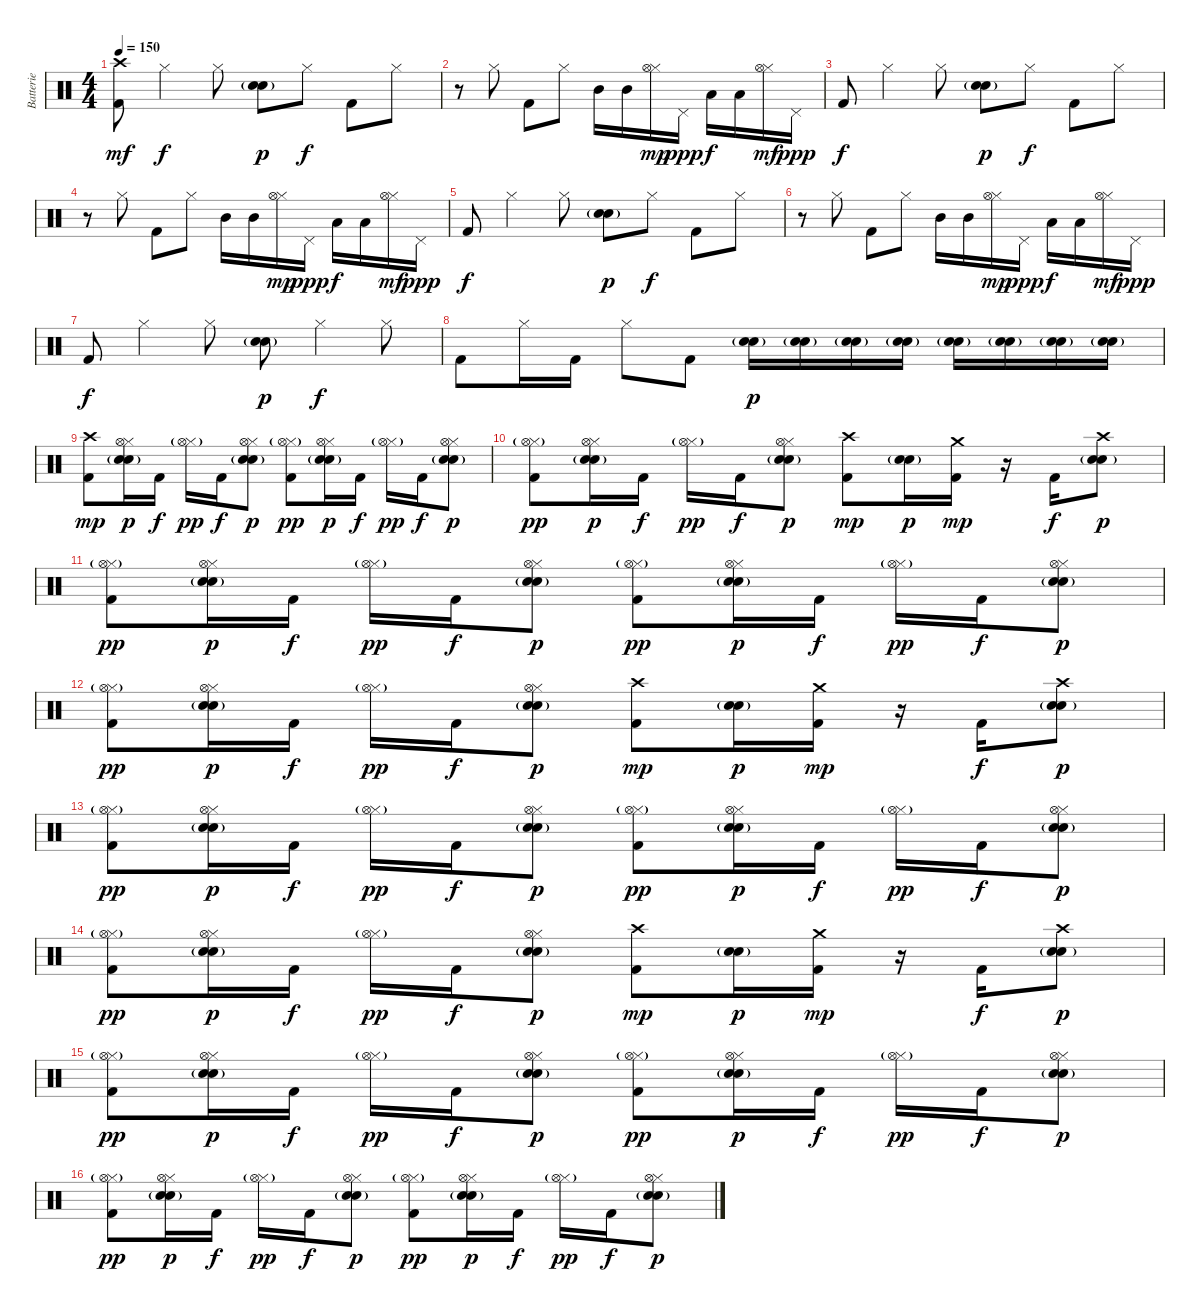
\track ("Batterie" "Batterie") {instrument percussion}
\staff {score}
\articulation defaults
\ts (4 4)
\tempo 150
\clef neutral
\ks c
("Crash high (hit)" "Kick (hit) 2").8{dy mf} "Hi-Hat (closed)".4{dy f} "Hi-Hat (closed)".8 ("Electric Snare (hit)" "Snare (hit) 2"{g}).8{dy p} "Hi-Hat (closed)".8{dy f} "Kick (hit) 2".8 "Hi-Hat (closed)".8 |
r.8 "Hi-Hat (closed)".8 "Kick (hit) 2".8 "Hi-Hat (closed)".8 "Mid Tom (hit)".16 "Mid Tom (hit)".16 ("Hi-Hat (closed)" "Hi-Hat (open)").16{dy mp} "Pedal Hi-Hat (hit)".16{dy ppp} "Low Tom (hit)".16{dy f} "Low Tom (hit)".16 ("Hi-Hat (closed)" "Hi-Hat (open)").16{dy mf} "Pedal Hi-Hat (hit)".16{dy ppp} |
"Kick (hit) 2".8{dy f} "Hi-Hat (closed)".4 "Hi-Hat (closed)".8 ("Electric Snare (hit)" "Snare (hit) 2"{g}).8{dy p} "Hi-Hat (closed)".8{dy f} "Kick (hit) 2".8 "Hi-Hat (closed)".8 |
r.8 "Hi-Hat (closed)".8 "Kick (hit) 2".8 "Hi-Hat (closed)".8 "Mid Tom (hit)".16 "Mid Tom (hit)".16 ("Hi-Hat (closed)" "Hi-Hat (open)").16{dy mp} "Pedal Hi-Hat (hit)".16{dy ppp} "Low Tom (hit)".16{dy f} "Low Tom (hit)".16 ("Hi-Hat (closed)" "Hi-Hat (open)").16{dy mf} "Pedal Hi-Hat (hit)".16{dy ppp} |
"Kick (hit) 2".8{dy f} "Hi-Hat (closed)".4 "Hi-Hat (closed)".8 ("Electric Snare (hit)" "Snare (hit) 2"{g}).8{dy p} "Hi-Hat (closed)".8{dy f} "Kick (hit) 2".8 "Hi-Hat (closed)".8 |
r.8 "Hi-Hat (closed)".8 "Kick (hit) 2".8 "Hi-Hat (closed)".8 "Mid Tom (hit)".16 "Mid Tom (hit)".16 ("Hi-Hat (closed)" "Hi-Hat (open)").16{dy mp} "Pedal Hi-Hat (hit)".16{dy ppp} "Low Tom (hit)".16{dy f} "Low Tom (hit)".16 ("Hi-Hat (closed)" "Hi-Hat (open)").16{dy mf} "Pedal Hi-Hat (hit)".16{dy ppp} |
"Kick (hit) 2".8{dy f} "Hi-Hat (closed)".4 "Hi-Hat (closed)".8 ("Electric Snare (hit)" "Snare (hit) 2"{g}).8{dy p} "Hi-Hat (closed)".4{dy f} "Hi-Hat (closed)".8 |
"Kick (hit) 2".8 "Hi-Hat (closed)".16 "Kick (hit) 2".16 "Hi-Hat (closed)".8 "Kick (hit) 2".8 ("Electric Snare (hit)" "Snare (hit) 2"{g}).16{dy p} ("Electric Snare (hit)" "Snare (hit) 2"{g}).16 ("Electric Snare (hit)" "Snare (hit) 2"{g}).16 ("Electric Snare (hit)" "Snare (hit) 2"{g}).16 ("Electric Snare (hit)" "Snare (hit) 2"{g}).16 ("Electric Snare (hit)" "Snare (hit) 2"{g}).16 ("Electric Snare (hit)" "Snare (hit) 2"{g}).16 ("Electric Snare (hit)" "Snare (hit) 2"{g}).16 |
("Crash high (hit)" "Kick (hit) 2").8{dy mp} ("Hi-Hat (closed)" "Hi-Hat (open)" "Electric Snare (hit)" "Snare (hit) 2"{g}).16{dy p} "Kick (hit) 2".16{dy f} ("Hi-Hat (closed)"{g} "Hi-Hat (open)"{g}).16{dy pp} "Kick (hit) 2".16{dy f} ("Hi-Hat (closed)" "Hi-Hat (open)" "Electric Snare (hit)" "Snare (hit) 2"{g}).8{dy p} ("Hi-Hat (closed)"{g} "Hi-Hat (open)"{g} "Kick (hit) 2").8{dy pp} ("Hi-Hat (closed)" "Hi-Hat (open)" "Electric Snare (hit)" "Snare (hit) 2"{g}).16{dy p} "Kick (hit) 2".16{dy f} ("Hi-Hat (closed)"{g} "Hi-Hat (open)"{g}).16{dy pp} "Kick (hit) 2".16{dy f} ("Hi-Hat (closed)" "Hi-Hat (open)" "Electric Snare (hit)" "Snare (hit) 2"{g}).8{dy p} |
("Hi-Hat (closed)"{g} "Hi-Hat (open)"{g} "Kick (hit) 2").8{dy pp} ("Hi-Hat (closed)" "Hi-Hat (open)" "Electric Snare (hit)" "Snare (hit) 2"{g}).16{dy p} "Kick (hit) 2".16{dy f} ("Hi-Hat (closed)"{g} "Hi-Hat (open)"{g}).16{dy pp} "Kick (hit) 2".16{dy f} ("Hi-Hat (closed)" "Hi-Hat (open)" "Electric Snare (hit)" "Snare (hit) 2"{g}).8{dy p} ("Crash high (hit)" "Kick (hit) 2").8{dy mp} ("Electric Snare (hit)" "Snare (hit) 2"{g}).16{dy p} ("Crash medium (hit)" "Kick (hit) 2").16{dy mp} r.16 "Kick (hit) 2".16{dy f} ("Crash high (hit)" "Electric Snare (hit)" "Snare (hit) 2"{g}).8{dy p} |
("Hi-Hat (closed)"{g} "Hi-Hat (open)"{g} "Kick (hit) 2").8{dy pp} ("Hi-Hat (closed)" "Hi-Hat (open)" "Electric Snare (hit)" "Snare (hit) 2"{g}).16{dy p} "Kick (hit) 2".16{dy f} ("Hi-Hat (closed)"{g} "Hi-Hat (open)"{g}).16{dy pp} "Kick (hit) 2".16{dy f} ("Hi-Hat (closed)" "Hi-Hat (open)" "Electric Snare (hit)" "Snare (hit) 2"{g}).8{dy p} ("Hi-Hat (closed)"{g} "Hi-Hat (open)"{g} "Kick (hit) 2").8{dy pp} ("Hi-Hat (closed)" "Hi-Hat (open)" "Electric Snare (hit)" "Snare (hit) 2"{g}).16{dy p} "Kick (hit) 2".16{dy f} ("Hi-Hat (closed)"{g} "Hi-Hat (open)"{g}).16{dy pp} "Kick (hit) 2".16{dy f} ("Hi-Hat (closed)" "Hi-Hat (open)" "Electric Snare (hit)" "Snare (hit) 2"{g}).8{dy p} |
("Hi-Hat (closed)"{g} "Hi-Hat (open)"{g} "Kick (hit) 2").8{dy pp} ("Hi-Hat (closed)" "Hi-Hat (open)" "Electric Snare (hit)" "Snare (hit) 2"{g}).16{dy p} "Kick (hit) 2".16{dy f} ("Hi-Hat (closed)"{g} "Hi-Hat (open)"{g}).16{dy pp} "Kick (hit) 2".16{dy f} ("Hi-Hat (closed)" "Hi-Hat (open)" "Electric Snare (hit)" "Snare (hit) 2"{g}).8{dy p} ("Crash high (hit)" "Kick (hit) 2").8{dy mp} ("Electric Snare (hit)" "Snare (hit) 2"{g}).16{dy p} ("Crash medium (hit)" "Kick (hit) 2").16{dy mp} r.16 "Kick (hit) 2".16{dy f} ("Crash high (hit)" "Electric Snare (hit)" "Snare (hit) 2"{g}).8{dy p} |
("Hi-Hat (closed)"{g} "Hi-Hat (open)"{g} "Kick (hit) 2").8{dy pp} ("Hi-Hat (closed)" "Hi-Hat (open)" "Electric Snare (hit)" "Snare (hit) 2"{g}).16{dy p} "Kick (hit) 2".16{dy f} ("Hi-Hat (closed)"{g} "Hi-Hat (open)"{g}).16{dy pp} "Kick (hit) 2".16{dy f} ("Hi-Hat (closed)" "Hi-Hat (open)" "Electric Snare (hit)" "Snare (hit) 2"{g}).8{dy p} ("Hi-Hat (closed)"{g} "Hi-Hat (open)"{g} "Kick (hit) 2").8{dy pp} ("Hi-Hat (closed)" "Hi-Hat (open)" "Electric Snare (hit)" "Snare (hit) 2"{g}).16{dy p} "Kick (hit) 2".16{dy f} ("Hi-Hat (closed)"{g} "Hi-Hat (open)"{g}).16{dy pp} "Kick (hit) 2".16{dy f} ("Hi-Hat (closed)" "Hi-Hat (open)" "Electric Snare (hit)" "Snare (hit) 2"{g}).8{dy p} |
("Hi-Hat (closed)"{g} "Hi-Hat (open)"{g} "Kick (hit) 2").8{dy pp} ("Hi-Hat (closed)" "Hi-Hat (open)" "Electric Snare (hit)" "Snare (hit) 2"{g}).16{dy p} "Kick (hit) 2".16{dy f} ("Hi-Hat (closed)"{g} "Hi-Hat (open)"{g}).16{dy pp} "Kick (hit) 2".16{dy f} ("Hi-Hat (closed)" "Hi-Hat (open)" "Electric Snare (hit)" "Snare (hit) 2"{g}).8{dy p} ("Crash high (hit)" "Kick (hit) 2").8{dy mp} ("Electric Snare (hit)" "Snare (hit) 2"{g}).16{dy p} ("Crash medium (hit)" "Kick (hit) 2").16{dy mp} r.16 "Kick (hit) 2".16{dy f} ("Crash high (hit)" "Electric Snare (hit)" "Snare (hit) 2"{g}).8{dy p} |
("Hi-Hat (closed)"{g} "Hi-Hat (open)"{g} "Kick (hit) 2").8{dy pp} ("Hi-Hat (closed)" "Hi-Hat (open)" "Electric Snare (hit)" "Snare (hit) 2"{g}).16{dy p} "Kick (hit) 2".16{dy f} ("Hi-Hat (closed)"{g} "Hi-Hat (open)"{g}).16{dy pp} "Kick (hit) 2".16{dy f} ("Hi-Hat (closed)" "Hi-Hat (open)" "Electric Snare (hit)" "Snare (hit) 2"{g}).8{dy p} ("Hi-Hat (closed)"{g} "Hi-Hat (open)"{g} "Kick (hit) 2").8{dy pp} ("Hi-Hat (closed)" "Hi-Hat (open)" "Electric Snare (hit)" "Snare (hit) 2"{g}).16{dy p} "Kick (hit) 2".16{dy f} ("Hi-Hat (closed)"{g} "Hi-Hat (open)"{g}).16{dy pp} "Kick (hit) 2".16{dy f} ("Hi-Hat (closed)" "Hi-Hat (open)" "Electric Snare (hit)" "Snare (hit) 2"{g}).8{dy p} |
("Hi-Hat (closed)"{g} "Hi-Hat (open)"{g} "Kick (hit) 2").8{dy pp} ("Hi-Hat (closed)" "Hi-Hat (open)" "Electric Snare (hit)" "Snare (hit) 2"{g}).16{dy p} "Kick (hit) 2".16{dy f} ("Hi-Hat (closed)"{g} "Hi-Hat (open)"{g}).16{dy pp} "Kick (hit) 2".16{dy f} ("Hi-Hat (closed)" "Hi-Hat (open)" "Electric Snare (hit)" "Snare (hit) 2"{g}).8{dy p} ("Hi-Hat (closed)"{g} "Hi-Hat (open)"{g} "Kick (hit) 2").8{dy pp} ("Hi-Hat (closed)" "Hi-Hat (open)" "Electric Snare (hit)" "Snare (hit) 2"{g}).16{dy p} "Kick (hit) 2".16{dy f} ("Hi-Hat (closed)"{g} "Hi-Hat (open)"{g}).16{dy pp} "Kick (hit) 2".16{dy f} ("Hi-Hat (closed)" "Hi-Hat (open)" "Electric Snare (hit)" "Snare (hit) 2"{g}).8{dy p}
